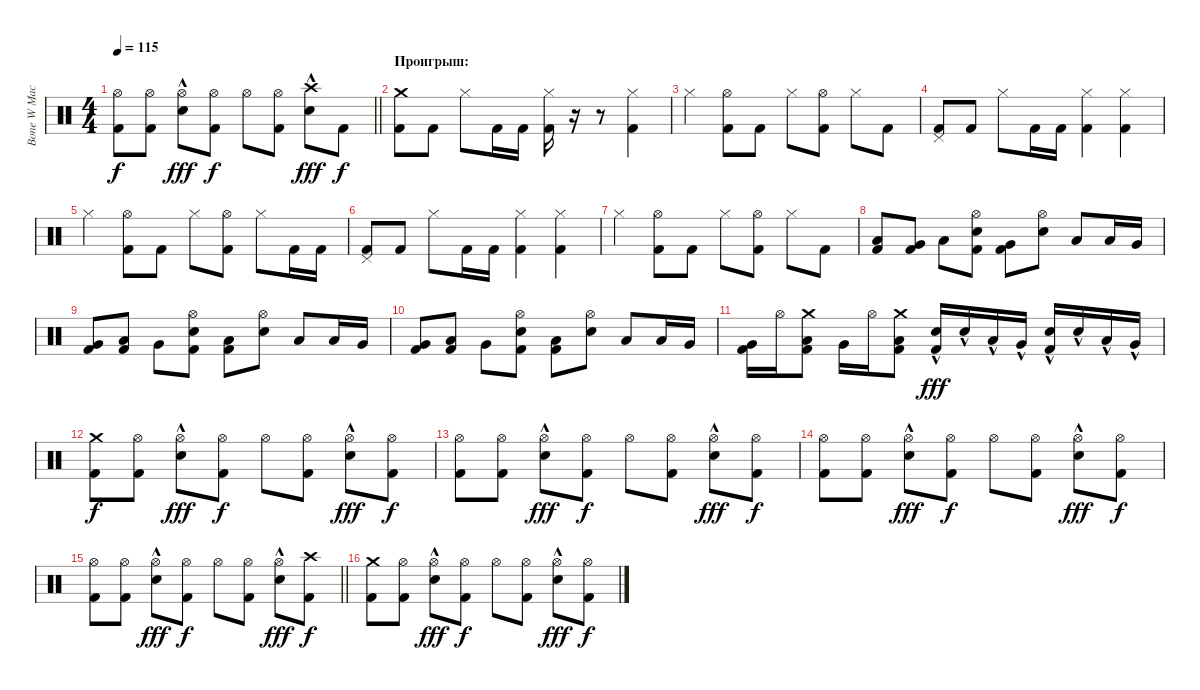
\track ("Bone W Machine" "Bone W Mac") {instrument percussion}
\staff {score}
\articulation defaults
\ts (4 4)
\tempo 115
\clef neutral
\barLineRight lightlight
\ks c
("Hi-Hat (open)" "Kick (hit) 2").8{dy f} ("Hi-Hat (open)" "Kick (hit) 2").8 ("Hi-Hat (open)" "Electric Snare (hit)"{hac}).8{dy fff} ("Hi-Hat (open)" "Kick (hit) 2").8{dy f} "Hi-Hat (open)".8 ("Hi-Hat (open)" "Kick (hit) 2").8 ("Crash high (hit)" "Electric Snare (hit)"{hac}).8{dy fff} "Kick (hit) 2".8{dy f} |
\section ("" "Проигрыш:")
("Crash medium (hit)" "Kick (hit) 2").8 "Kick (hit) 2".8 "Hi-Hat (closed)".8 "Kick (hit) 2".16 "Kick (hit) 2".16 ("Hi-Hat (closed)" "Kick (hit) 2").16 r.16 r.8 ("Hi-Hat (closed)" "Kick (hit) 2").4 |
"Hi-Hat (closed)".4 ("Hi-Hat (open)" "Kick (hit) 2").8 "Kick (hit) 2".8 "Hi-Hat (closed)".8 ("Hi-Hat (open)" "Kick (hit) 2").8 "Hi-Hat (closed)".8 "Kick (hit) 2".8 |
("Pedal Hi-Hat (hit)" "Kick (hit) 2").8 "Kick (hit) 2".8 "Hi-Hat (closed)".8 "Kick (hit) 2".16 "Kick (hit) 2".16 ("Hi-Hat (closed)" "Kick (hit) 2").4 ("Hi-Hat (closed)" "Kick (hit) 2").4 |
"Hi-Hat (closed)".4 ("Hi-Hat (open)" "Kick (hit) 2").8 "Kick (hit) 2".8 "Hi-Hat (closed)".8 ("Hi-Hat (open)" "Kick (hit) 2").8 "Hi-Hat (closed)".8 "Kick (hit) 2".16 "Kick (hit) 2".16 |
("Pedal Hi-Hat (hit)" "Kick (hit) 2").8 "Kick (hit) 2".8 "Hi-Hat (closed)".8 "Kick (hit) 2".16 "Kick (hit) 2".16 ("Hi-Hat (closed)" "Kick (hit) 2").4 ("Hi-Hat (closed)" "Kick (hit) 2").4 |
"Hi-Hat (closed)".4 ("Hi-Hat (open)" "Kick (hit) 2").8 "Kick (hit) 2".8 "Hi-Hat (closed)".8 ("Hi-Hat (open)" "Kick (hit) 2").8 "Hi-Hat (closed)".8 "Kick (hit) 2".8 |
("Low Tom (hit)" "Kick (hit) 2").8 ("Very Low Tom (hit)" "Kick (hit) 2").8 "Low Tom (hit)".8 ("Hi-Hat (open)" "Snare (hit) 2" "Kick (hit) 2").8 ("Very Low Tom (hit)" "Kick (hit) 2").8 ("Hi-Hat (open)" "Snare (hit) 2").8 "Low Tom (hit)".8 "Low Tom (hit)".16 "Very Low Tom (hit)".16 |
("Very Low Tom (hit)" "Kick (hit) 2").8 ("Low Tom (hit)" "Kick (hit) 2").8 "Very Low Tom (hit)".8 ("Hi-Hat (open)" "Snare (hit) 2" "Kick (hit) 2").8 ("Low Tom (hit)" "Kick (hit) 2").8 ("Hi-Hat (open)" "Snare (hit) 2").8 "Low Tom (hit)".8 "Low Tom (hit)".16 "Very Low Tom (hit)".16 |
("Very Low Tom (hit)" "Kick (hit) 2").8 ("Low Tom (hit)" "Kick (hit) 2").8 "Very Low Tom (hit)".8 ("Hi-Hat (open)" "Snare (hit) 2" "Kick (hit) 2").8 ("Low Tom (hit)" "Kick (hit) 2").8 ("Hi-Hat (open)" "Snare (hit) 2").8 "Low Tom (hit)".8 "Low Tom (hit)".16 "Very Low Tom (hit)".16 |
("Very Low Tom (hit)" "Kick (hit) 2").16 "Hi-Hat (open)".16 ("Crash medium (hit)" "Low Tom (hit)" "Kick (hit) 2").8 "Very Low Tom (hit)".16 "Hi-Hat (open)".16 ("Crash medium (hit)" "Low Tom (hit)" "Kick (hit) 2").8 ("Electric Snare (hit)"{hac} "Kick (hit) 2").16{dy fff} "Electric Snare (hit)"{hac}.16 "Low Tom (hit)"{hac}.16 "Very Low Tom (hit)"{hac}.16 ("Electric Snare (hit)"{hac} "Kick (hit) 2").16 "Electric Snare (hit)"{hac}.16 "Low Tom (hit)"{hac}.16 "Very Low Tom (hit)"{hac}.16 |
("Crash medium (hit)" "Kick (hit) 2").8{dy f} ("Hi-Hat (open)" "Kick (hit) 2").8 ("Hi-Hat (open)" "Electric Snare (hit)"{hac}).8{dy fff} ("Hi-Hat (open)" "Kick (hit) 2").8{dy f} "Hi-Hat (open)".8 ("Hi-Hat (open)" "Kick (hit) 2").8 ("Hi-Hat (open)" "Electric Snare (hit)"{hac}).8{dy fff} ("Hi-Hat (open)" "Kick (hit) 2").8{dy f} |
("Hi-Hat (open)" "Kick (hit) 2").8 ("Hi-Hat (open)" "Kick (hit) 2").8 ("Hi-Hat (open)" "Electric Snare (hit)"{hac}).8{dy fff} ("Hi-Hat (open)" "Kick (hit) 2").8{dy f} "Hi-Hat (open)".8 ("Hi-Hat (open)" "Kick (hit) 2").8 ("Hi-Hat (open)" "Electric Snare (hit)"{hac}).8{dy fff} ("Hi-Hat (open)" "Kick (hit) 2").8{dy f} |
("Hi-Hat (open)" "Kick (hit) 2").8 ("Hi-Hat (open)" "Kick (hit) 2").8 ("Hi-Hat (open)" "Electric Snare (hit)"{hac}).8{dy fff} ("Hi-Hat (open)" "Kick (hit) 2").8{dy f} "Hi-Hat (open)".8 ("Hi-Hat (open)" "Kick (hit) 2").8 ("Hi-Hat (open)" "Electric Snare (hit)"{hac}).8{dy fff} ("Hi-Hat (open)" "Kick (hit) 2").8{dy f} |
\barLineRight lightlight
("Hi-Hat (open)" "Kick (hit) 2").8 ("Hi-Hat (open)" "Kick (hit) 2").8 ("Hi-Hat (open)" "Electric Snare (hit)"{hac}).8{dy fff} ("Hi-Hat (open)" "Kick (hit) 2").8{dy f} "Hi-Hat (open)".8 ("Hi-Hat (open)" "Kick (hit) 2").8 ("Hi-Hat (open)" "Electric Snare (hit)"{hac}).8{dy fff} ("Crash high (hit)" "Kick (hit) 2").8{dy f} |
("Crash medium (hit)" "Kick (hit) 2").8 ("Hi-Hat (open)" "Kick (hit) 2").8 ("Hi-Hat (open)" "Electric Snare (hit)"{hac}).8{dy fff} ("Hi-Hat (open)" "Kick (hit) 2").8{dy f} "Hi-Hat (open)".8 ("Hi-Hat (open)" "Kick (hit) 2").8 ("Hi-Hat (open)" "Electric Snare (hit)"{hac}).8{dy fff} ("Hi-Hat (open)" "Kick (hit) 2").8{dy f}
